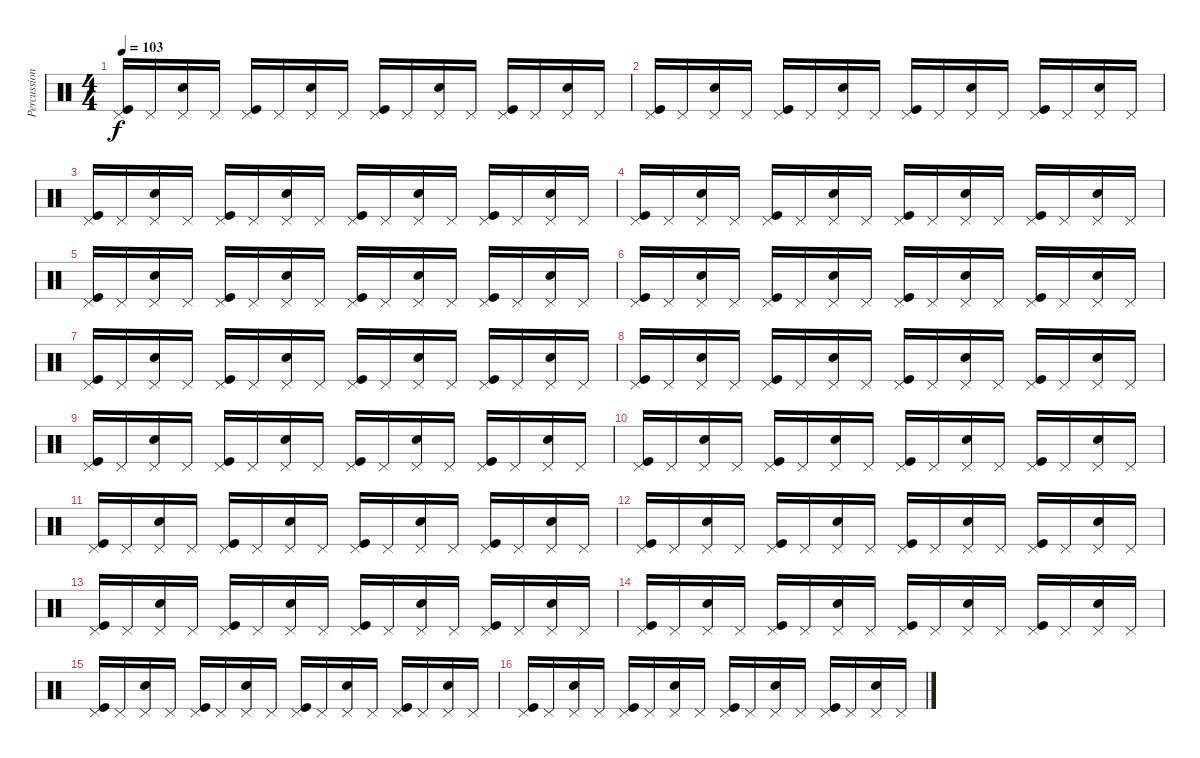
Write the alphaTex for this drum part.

\track ("Percussion" "Percussion") {instrument percussion}
\staff {score}
\articulation defaults
\ts (4 4)
\tempo 103
\clef neutral
\ks c
("Kick (hit)" "Pedal Hi-Hat (hit)").16{dy f} "Pedal Hi-Hat (hit)".16 ("Snare (hit) 2" "Pedal Hi-Hat (hit)").16 "Pedal Hi-Hat (hit)".16 ("Kick (hit)" "Pedal Hi-Hat (hit)").16 "Pedal Hi-Hat (hit)".16 ("Snare (hit) 2" "Pedal Hi-Hat (hit)").16 "Pedal Hi-Hat (hit)".16 ("Kick (hit)" "Pedal Hi-Hat (hit)").16 "Pedal Hi-Hat (hit)".16 ("Snare (hit) 2" "Pedal Hi-Hat (hit)").16 "Pedal Hi-Hat (hit)".16 ("Kick (hit)" "Pedal Hi-Hat (hit)").16 "Pedal Hi-Hat (hit)".16 ("Snare (hit) 2" "Pedal Hi-Hat (hit)").16 "Pedal Hi-Hat (hit)".16 |
("Kick (hit)" "Pedal Hi-Hat (hit)").16 "Pedal Hi-Hat (hit)".16 ("Snare (hit) 2" "Pedal Hi-Hat (hit)").16 "Pedal Hi-Hat (hit)".16 ("Kick (hit)" "Pedal Hi-Hat (hit)").16 "Pedal Hi-Hat (hit)".16 ("Snare (hit) 2" "Pedal Hi-Hat (hit)").16 "Pedal Hi-Hat (hit)".16 ("Kick (hit)" "Pedal Hi-Hat (hit)").16 "Pedal Hi-Hat (hit)".16 ("Snare (hit) 2" "Pedal Hi-Hat (hit)").16 "Pedal Hi-Hat (hit)".16 ("Kick (hit)" "Pedal Hi-Hat (hit)").16 "Pedal Hi-Hat (hit)".16 ("Snare (hit) 2" "Pedal Hi-Hat (hit)").16 "Pedal Hi-Hat (hit)".16 |
("Kick (hit)" "Pedal Hi-Hat (hit)").16 "Pedal Hi-Hat (hit)".16 ("Snare (hit) 2" "Pedal Hi-Hat (hit)").16 "Pedal Hi-Hat (hit)".16 ("Kick (hit)" "Pedal Hi-Hat (hit)").16 "Pedal Hi-Hat (hit)".16 ("Snare (hit) 2" "Pedal Hi-Hat (hit)").16 "Pedal Hi-Hat (hit)".16 ("Kick (hit)" "Pedal Hi-Hat (hit)").16 "Pedal Hi-Hat (hit)".16 ("Snare (hit) 2" "Pedal Hi-Hat (hit)").16 "Pedal Hi-Hat (hit)".16 ("Kick (hit)" "Pedal Hi-Hat (hit)").16 "Pedal Hi-Hat (hit)".16 ("Snare (hit) 2" "Pedal Hi-Hat (hit)").16 "Pedal Hi-Hat (hit)".16 |
("Kick (hit)" "Pedal Hi-Hat (hit)").16 "Pedal Hi-Hat (hit)".16 ("Snare (hit) 2" "Pedal Hi-Hat (hit)").16 "Pedal Hi-Hat (hit)".16 ("Kick (hit)" "Pedal Hi-Hat (hit)").16 "Pedal Hi-Hat (hit)".16 ("Snare (hit) 2" "Pedal Hi-Hat (hit)").16 "Pedal Hi-Hat (hit)".16 ("Kick (hit)" "Pedal Hi-Hat (hit)").16 "Pedal Hi-Hat (hit)".16 ("Snare (hit) 2" "Pedal Hi-Hat (hit)").16 "Pedal Hi-Hat (hit)".16 ("Kick (hit)" "Pedal Hi-Hat (hit)").16 "Pedal Hi-Hat (hit)".16 ("Snare (hit) 2" "Pedal Hi-Hat (hit)").16 "Pedal Hi-Hat (hit)".16 |
("Kick (hit)" "Pedal Hi-Hat (hit)").16 "Pedal Hi-Hat (hit)".16 ("Snare (hit) 2" "Pedal Hi-Hat (hit)").16 "Pedal Hi-Hat (hit)".16 ("Kick (hit)" "Pedal Hi-Hat (hit)").16 "Pedal Hi-Hat (hit)".16 ("Snare (hit) 2" "Pedal Hi-Hat (hit)").16 "Pedal Hi-Hat (hit)".16 ("Kick (hit)" "Pedal Hi-Hat (hit)").16 "Pedal Hi-Hat (hit)".16 ("Snare (hit) 2" "Pedal Hi-Hat (hit)").16 "Pedal Hi-Hat (hit)".16 ("Kick (hit)" "Pedal Hi-Hat (hit)").16 "Pedal Hi-Hat (hit)".16 ("Snare (hit) 2" "Pedal Hi-Hat (hit)").16 "Pedal Hi-Hat (hit)".16 |
("Kick (hit)" "Pedal Hi-Hat (hit)").16 "Pedal Hi-Hat (hit)".16 ("Snare (hit) 2" "Pedal Hi-Hat (hit)").16 "Pedal Hi-Hat (hit)".16 ("Kick (hit)" "Pedal Hi-Hat (hit)").16 "Pedal Hi-Hat (hit)".16 ("Snare (hit) 2" "Pedal Hi-Hat (hit)").16 "Pedal Hi-Hat (hit)".16 ("Kick (hit)" "Pedal Hi-Hat (hit)").16 "Pedal Hi-Hat (hit)".16 ("Snare (hit) 2" "Pedal Hi-Hat (hit)").16 "Pedal Hi-Hat (hit)".16 ("Kick (hit)" "Pedal Hi-Hat (hit)").16 "Pedal Hi-Hat (hit)".16 ("Snare (hit) 2" "Pedal Hi-Hat (hit)").16 "Pedal Hi-Hat (hit)".16 |
("Kick (hit)" "Pedal Hi-Hat (hit)").16 "Pedal Hi-Hat (hit)".16 ("Snare (hit) 2" "Pedal Hi-Hat (hit)").16 "Pedal Hi-Hat (hit)".16 ("Kick (hit)" "Pedal Hi-Hat (hit)").16 "Pedal Hi-Hat (hit)".16 ("Snare (hit) 2" "Pedal Hi-Hat (hit)").16 "Pedal Hi-Hat (hit)".16 ("Kick (hit)" "Pedal Hi-Hat (hit)").16 "Pedal Hi-Hat (hit)".16 ("Snare (hit) 2" "Pedal Hi-Hat (hit)").16 "Pedal Hi-Hat (hit)".16 ("Kick (hit)" "Pedal Hi-Hat (hit)").16 "Pedal Hi-Hat (hit)".16 ("Snare (hit) 2" "Pedal Hi-Hat (hit)").16 "Pedal Hi-Hat (hit)".16 |
("Kick (hit)" "Pedal Hi-Hat (hit)").16 "Pedal Hi-Hat (hit)".16 ("Snare (hit) 2" "Pedal Hi-Hat (hit)").16 "Pedal Hi-Hat (hit)".16 ("Kick (hit)" "Pedal Hi-Hat (hit)").16 "Pedal Hi-Hat (hit)".16 ("Snare (hit) 2" "Pedal Hi-Hat (hit)").16 "Pedal Hi-Hat (hit)".16 ("Kick (hit)" "Pedal Hi-Hat (hit)").16 "Pedal Hi-Hat (hit)".16 ("Snare (hit) 2" "Pedal Hi-Hat (hit)").16 "Pedal Hi-Hat (hit)".16 ("Kick (hit)" "Pedal Hi-Hat (hit)").16 "Pedal Hi-Hat (hit)".16 ("Snare (hit) 2" "Pedal Hi-Hat (hit)").16 "Pedal Hi-Hat (hit)".16 |
("Kick (hit)" "Pedal Hi-Hat (hit)").16 "Pedal Hi-Hat (hit)".16 ("Snare (hit) 2" "Pedal Hi-Hat (hit)").16 "Pedal Hi-Hat (hit)".16 ("Kick (hit)" "Pedal Hi-Hat (hit)").16 "Pedal Hi-Hat (hit)".16 ("Snare (hit) 2" "Pedal Hi-Hat (hit)").16 "Pedal Hi-Hat (hit)".16 ("Kick (hit)" "Pedal Hi-Hat (hit)").16 "Pedal Hi-Hat (hit)".16 ("Snare (hit) 2" "Pedal Hi-Hat (hit)").16 "Pedal Hi-Hat (hit)".16 ("Kick (hit)" "Pedal Hi-Hat (hit)").16 "Pedal Hi-Hat (hit)".16 ("Snare (hit) 2" "Pedal Hi-Hat (hit)").16 "Pedal Hi-Hat (hit)".16 |
("Kick (hit)" "Pedal Hi-Hat (hit)").16 "Pedal Hi-Hat (hit)".16 ("Snare (hit) 2" "Pedal Hi-Hat (hit)").16 "Pedal Hi-Hat (hit)".16 ("Kick (hit)" "Pedal Hi-Hat (hit)").16 "Pedal Hi-Hat (hit)".16 ("Snare (hit) 2" "Pedal Hi-Hat (hit)").16 "Pedal Hi-Hat (hit)".16 ("Kick (hit)" "Pedal Hi-Hat (hit)").16 "Pedal Hi-Hat (hit)".16 ("Snare (hit) 2" "Pedal Hi-Hat (hit)").16 "Pedal Hi-Hat (hit)".16 ("Kick (hit)" "Pedal Hi-Hat (hit)").16 "Pedal Hi-Hat (hit)".16 ("Snare (hit) 2" "Pedal Hi-Hat (hit)").16 "Pedal Hi-Hat (hit)".16 |
("Kick (hit)" "Pedal Hi-Hat (hit)").16 "Pedal Hi-Hat (hit)".16 ("Snare (hit) 2" "Pedal Hi-Hat (hit)").16 "Pedal Hi-Hat (hit)".16 ("Kick (hit)" "Pedal Hi-Hat (hit)").16 "Pedal Hi-Hat (hit)".16 ("Snare (hit) 2" "Pedal Hi-Hat (hit)").16 "Pedal Hi-Hat (hit)".16 ("Kick (hit)" "Pedal Hi-Hat (hit)").16 "Pedal Hi-Hat (hit)".16 ("Snare (hit) 2" "Pedal Hi-Hat (hit)").16 "Pedal Hi-Hat (hit)".16 ("Kick (hit)" "Pedal Hi-Hat (hit)").16 "Pedal Hi-Hat (hit)".16 ("Snare (hit) 2" "Pedal Hi-Hat (hit)").16 "Pedal Hi-Hat (hit)".16 |
("Kick (hit)" "Pedal Hi-Hat (hit)").16 "Pedal Hi-Hat (hit)".16 ("Snare (hit) 2" "Pedal Hi-Hat (hit)").16 "Pedal Hi-Hat (hit)".16 ("Kick (hit)" "Pedal Hi-Hat (hit)").16 "Pedal Hi-Hat (hit)".16 ("Snare (hit) 2" "Pedal Hi-Hat (hit)").16 "Pedal Hi-Hat (hit)".16 ("Kick (hit)" "Pedal Hi-Hat (hit)").16 "Pedal Hi-Hat (hit)".16 ("Snare (hit) 2" "Pedal Hi-Hat (hit)").16 "Pedal Hi-Hat (hit)".16 ("Kick (hit)" "Pedal Hi-Hat (hit)").16 "Pedal Hi-Hat (hit)".16 ("Snare (hit) 2" "Pedal Hi-Hat (hit)").16 "Pedal Hi-Hat (hit)".16 |
("Kick (hit)" "Pedal Hi-Hat (hit)").16 "Pedal Hi-Hat (hit)".16 ("Snare (hit) 2" "Pedal Hi-Hat (hit)").16 "Pedal Hi-Hat (hit)".16 ("Kick (hit)" "Pedal Hi-Hat (hit)").16 "Pedal Hi-Hat (hit)".16 ("Snare (hit) 2" "Pedal Hi-Hat (hit)").16 "Pedal Hi-Hat (hit)".16 ("Kick (hit)" "Pedal Hi-Hat (hit)").16 "Pedal Hi-Hat (hit)".16 ("Snare (hit) 2" "Pedal Hi-Hat (hit)").16 "Pedal Hi-Hat (hit)".16 ("Kick (hit)" "Pedal Hi-Hat (hit)").16 "Pedal Hi-Hat (hit)".16 ("Snare (hit) 2" "Pedal Hi-Hat (hit)").16 "Pedal Hi-Hat (hit)".16 |
("Kick (hit)" "Pedal Hi-Hat (hit)").16 "Pedal Hi-Hat (hit)".16 ("Snare (hit) 2" "Pedal Hi-Hat (hit)").16 "Pedal Hi-Hat (hit)".16 ("Kick (hit)" "Pedal Hi-Hat (hit)").16 "Pedal Hi-Hat (hit)".16 ("Snare (hit) 2" "Pedal Hi-Hat (hit)").16 "Pedal Hi-Hat (hit)".16 ("Kick (hit)" "Pedal Hi-Hat (hit)").16 "Pedal Hi-Hat (hit)".16 ("Snare (hit) 2" "Pedal Hi-Hat (hit)").16 "Pedal Hi-Hat (hit)".16 ("Kick (hit)" "Pedal Hi-Hat (hit)").16 "Pedal Hi-Hat (hit)".16 ("Snare (hit) 2" "Pedal Hi-Hat (hit)").16 "Pedal Hi-Hat (hit)".16 |
("Kick (hit)" "Pedal Hi-Hat (hit)").16 "Pedal Hi-Hat (hit)".16 ("Snare (hit) 2" "Pedal Hi-Hat (hit)").16 "Pedal Hi-Hat (hit)".16 ("Kick (hit)" "Pedal Hi-Hat (hit)").16 "Pedal Hi-Hat (hit)".16 ("Snare (hit) 2" "Pedal Hi-Hat (hit)").16 "Pedal Hi-Hat (hit)".16 ("Kick (hit)" "Pedal Hi-Hat (hit)").16 "Pedal Hi-Hat (hit)".16 ("Snare (hit) 2" "Pedal Hi-Hat (hit)").16 "Pedal Hi-Hat (hit)".16 ("Kick (hit)" "Pedal Hi-Hat (hit)").16 "Pedal Hi-Hat (hit)".16 ("Snare (hit) 2" "Pedal Hi-Hat (hit)").16 "Pedal Hi-Hat (hit)".16 |
("Kick (hit)" "Pedal Hi-Hat (hit)").16 "Pedal Hi-Hat (hit)".16 ("Snare (hit) 2" "Pedal Hi-Hat (hit)").16 "Pedal Hi-Hat (hit)".16 ("Kick (hit)" "Pedal Hi-Hat (hit)").16 "Pedal Hi-Hat (hit)".16 ("Snare (hit) 2" "Pedal Hi-Hat (hit)").16 "Pedal Hi-Hat (hit)".16 ("Kick (hit)" "Pedal Hi-Hat (hit)").16 "Pedal Hi-Hat (hit)".16 ("Snare (hit) 2" "Pedal Hi-Hat (hit)").16 "Pedal Hi-Hat (hit)".16 ("Kick (hit)" "Pedal Hi-Hat (hit)").16 "Pedal Hi-Hat (hit)".16 ("Snare (hit) 2" "Pedal Hi-Hat (hit)").16 "Pedal Hi-Hat (hit)".16
